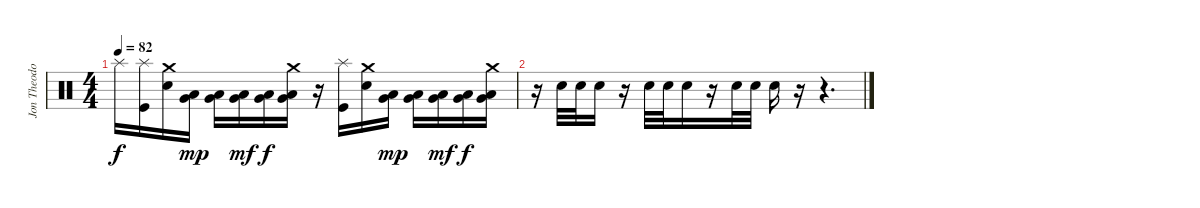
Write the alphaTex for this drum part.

\track ("Jon Theodore - Drums" "Jon Theodo") {instrument percussion}
\staff {score}
\articulation defaults
\ts (4 4)
\tempo 82
\clef neutral
\ks c "Splash (hit)".16{dy f}
("Splash (hit)" "Kick (hit)").16 ("Crash medium (hit)" "Snare (hit) 2").16 ("Low Tom (hit)" "Very Low Tom (hit)").16{dy mp} ("Low Tom (hit)" "Very Low Tom (hit)").16 ("Low Tom (hit)" "Very Low Tom (hit)").16{dy mf} ("Low Tom (hit)" "Very Low Tom (hit)").16{dy f} ("Crash medium (hit)" "Low Tom (hit)" "Very Low Tom (hit)").16 r.16 ("Splash (hit)" "Kick (hit)").16 ("Crash medium (hit)" "Snare (hit) 2").16 ("Low Tom (hit)" "Very Low Tom (hit)").16{dy mp} ("Low Tom (hit)" "Very Low Tom (hit)").16 ("Low Tom (hit)" "Very Low Tom (hit)").16{dy mf} ("Low Tom (hit)" "Very Low Tom (hit)").16{dy f} ("Crash medium (hit)" "Low Tom (hit)" "Very Low Tom (hit)").16 |
r.16 "Snare (hit) 2".32 "Snare (hit) 2".32 "Snare (hit) 2".16 r.16 "Snare (hit) 2".32 "Snare (hit) 2".32 "Snare (hit) 2".16 r.16 "Snare (hit) 2".32 "Snare (hit) 2".32 "Snare (hit) 2".16 r.16 r.4{d}
